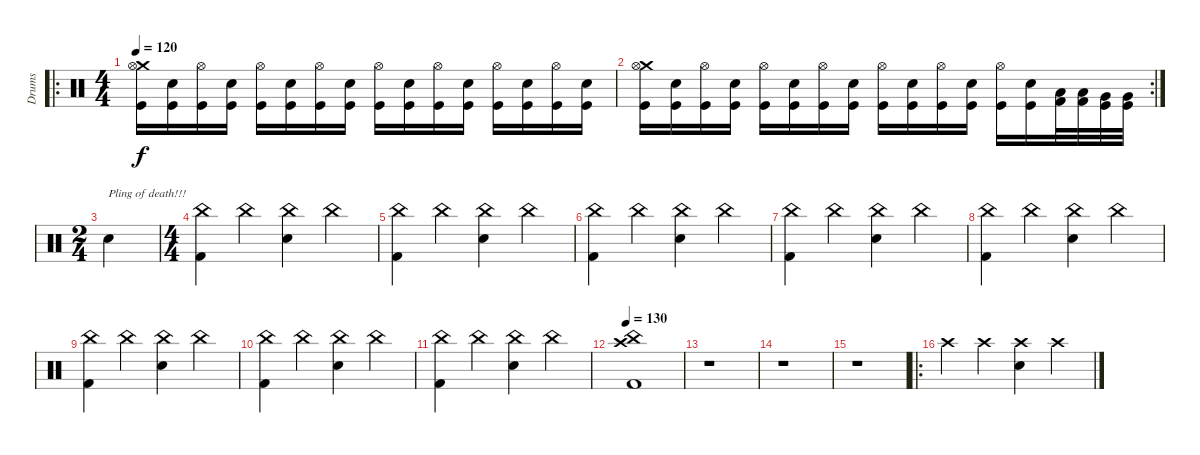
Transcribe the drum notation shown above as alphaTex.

\track ("Drums" "Drums") {instrument percussion}
\staff {score}
\articulation defaults
\ro
\ts (4 4)
\tempo 120
\clef neutral
\ks c
("Crash medium (hit)" "Hi-Hat (open)" "Kick (hit)").16{dy f} ("Electric Snare (hit)" "Kick (hit)").16 ("Hi-Hat (open)" "Kick (hit)").16 ("Electric Snare (hit)" "Kick (hit)").16 ("Hi-Hat (open)" "Kick (hit)").16 ("Electric Snare (hit)" "Kick (hit)").16 ("Hi-Hat (open)" "Kick (hit)").16 ("Electric Snare (hit)" "Kick (hit)").16 ("Hi-Hat (open)" "Kick (hit)").16 ("Electric Snare (hit)" "Kick (hit)").16 ("Hi-Hat (open)" "Kick (hit)").16 ("Electric Snare (hit)" "Kick (hit)").16 ("Hi-Hat (open)" "Kick (hit)").16 ("Electric Snare (hit)" "Kick (hit)").16 ("Hi-Hat (open)" "Kick (hit)").16 ("Electric Snare (hit)" "Kick (hit)").16 |
\rc 2
("Crash medium (hit)" "Hi-Hat (open)" "Kick (hit)").16 ("Electric Snare (hit)" "Kick (hit)").16 ("Hi-Hat (open)" "Kick (hit)").16 ("Electric Snare (hit)" "Kick (hit)").16 ("Hi-Hat (open)" "Kick (hit)").16 ("Electric Snare (hit)" "Kick (hit)").16 ("Hi-Hat (open)" "Kick (hit)").16 ("Electric Snare (hit)" "Kick (hit)").16 ("Hi-Hat (open)" "Kick (hit)").16 ("Electric Snare (hit)" "Kick (hit)").16 ("Hi-Hat (open)" "Kick (hit)").16 ("Electric Snare (hit)" "Kick (hit)").16 ("Hi-Hat (open)" "Kick (hit)").16 ("Electric Snare (hit)" "Kick (hit)").16 ("Low Tom (hit)" "Kick (hit) 2").32 ("Low Tom (hit)" "Kick (hit) 2").32 ("Very Low Tom (hit)" "Kick (hit)").32 ("Very Low Tom (hit)" "Kick (hit)").32 |
\ts (2 4)
"Metronome (bell)".2{txt "Pling of death!!!"} |
\ts (4 4)
("China (hit)" "Kick (hit) 2").4 "China (hit)".4 ("China (hit)" "Electric Snare (hit)").4 "China (hit)".4 |
("China (hit)" "Kick (hit) 2").4 "China (hit)".4 ("China (hit)" "Electric Snare (hit)").4 "China (hit)".4 |
("China (hit)" "Kick (hit) 2").4 "China (hit)".4 ("China (hit)" "Electric Snare (hit)").4 "China (hit)".4 |
("China (hit)" "Kick (hit) 2").4 "China (hit)".4 ("China (hit)" "Electric Snare (hit)").4 "China (hit)".4 |
("China (hit)" "Kick (hit) 2").4 "China (hit)".4 ("China (hit)" "Electric Snare (hit)").4 "China (hit)".4 |
("China (hit)" "Kick (hit) 2").4 "China (hit)".4 ("China (hit)" "Electric Snare (hit)").4 "China (hit)".4 |
("China (hit)" "Kick (hit) 2").4 "China (hit)".4 ("China (hit)" "Electric Snare (hit)").4 "China (hit)".4 |
("China (hit)" "Kick (hit) 2").4 "China (hit)".4 ("China (hit)" "Electric Snare (hit)").4 "China (hit)".4 |
\tempo 130
("China (hit)" "Crash high (hit)" "Kick (hit) 2").1 |
r.1 |
r.1 |
r.1 |
\ro "Crash high (hit)".4 "Crash high (hit)".4
("Crash high (hit)" "Electric Snare (hit)").4 "Crash high (hit)".4
